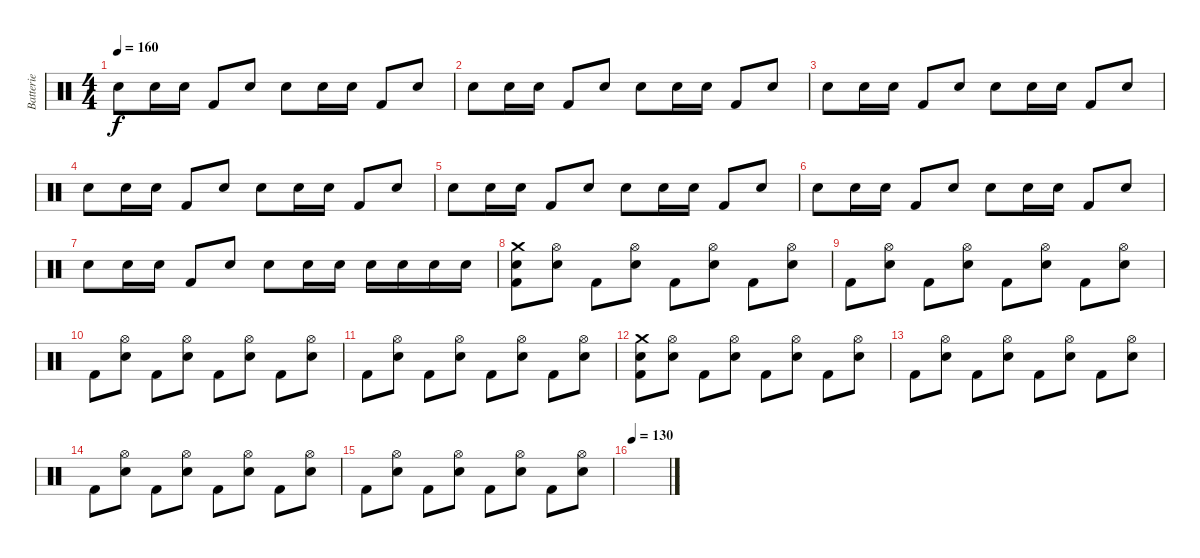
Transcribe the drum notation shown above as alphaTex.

\track ("Batterie" "Batterie") {instrument percussion}
\staff {score}
\articulation defaults
\ts (4 4)
\tempo 160
\clef neutral
\ks c "Electric Snare (hit)".8{dy f} "Electric Snare (hit)".16 "Electric Snare (hit)".16 "Kick (hit) 2".8 "Electric Snare (hit)".8 "Electric Snare (hit)".8 "Electric Snare (hit)".16 "Electric Snare (hit)".16 "Kick (hit) 2".8 "Electric Snare (hit)".8
|
"Electric Snare (hit)".8 "Electric Snare (hit)".16 "Electric Snare (hit)".16 "Kick (hit) 2".8 "Electric Snare (hit)".8 "Electric Snare (hit)".8 "Electric Snare (hit)".16 "Electric Snare (hit)".16 "Kick (hit) 2".8 "Electric Snare (hit)".8 |
"Electric Snare (hit)".8 "Electric Snare (hit)".16 "Electric Snare (hit)".16 "Kick (hit) 2".8 "Electric Snare (hit)".8 "Electric Snare (hit)".8 "Electric Snare (hit)".16 "Electric Snare (hit)".16 "Kick (hit) 2".8 "Electric Snare (hit)".8 |
"Electric Snare (hit)".8 "Electric Snare (hit)".16 "Electric Snare (hit)".16 "Kick (hit) 2".8 "Electric Snare (hit)".8 "Electric Snare (hit)".8 "Electric Snare (hit)".16 "Electric Snare (hit)".16 "Kick (hit) 2".8 "Electric Snare (hit)".8 |
"Electric Snare (hit)".8 "Electric Snare (hit)".16 "Electric Snare (hit)".16 "Kick (hit) 2".8 "Electric Snare (hit)".8 "Electric Snare (hit)".8 "Electric Snare (hit)".16 "Electric Snare (hit)".16 "Kick (hit) 2".8 "Electric Snare (hit)".8 |
"Electric Snare (hit)".8 "Electric Snare (hit)".16 "Electric Snare (hit)".16 "Kick (hit) 2".8 "Electric Snare (hit)".8 "Electric Snare (hit)".8 "Electric Snare (hit)".16 "Electric Snare (hit)".16 "Kick (hit) 2".8 "Electric Snare (hit)".8 |
"Electric Snare (hit)".8 "Electric Snare (hit)".16 "Electric Snare (hit)".16 "Kick (hit) 2".8 "Electric Snare (hit)".8 "Electric Snare (hit)".8 "Electric Snare (hit)".16 "Electric Snare (hit)".16 "Electric Snare (hit)".16 "Electric Snare (hit)".16 "Electric Snare (hit)".16 "Electric Snare (hit)".16 |
("Kick (hit) 2" "Electric Snare (hit)" "Crash medium (hit)").8 ("Electric Snare (hit)" "Hi-Hat (open)").8 "Kick (hit) 2".8 ("Electric Snare (hit)" "Hi-Hat (open)").8 "Kick (hit) 2".8 ("Electric Snare (hit)" "Hi-Hat (open)").8 "Kick (hit) 2".8 ("Electric Snare (hit)" "Hi-Hat (open)").8 |
"Kick (hit) 2".8 ("Electric Snare (hit)" "Hi-Hat (open)").8 "Kick (hit) 2".8 ("Electric Snare (hit)" "Hi-Hat (open)").8 "Kick (hit) 2".8 ("Electric Snare (hit)" "Hi-Hat (open)").8 "Kick (hit) 2".8 ("Electric Snare (hit)" "Hi-Hat (open)").8 |
"Kick (hit) 2".8 ("Electric Snare (hit)" "Hi-Hat (open)").8 "Kick (hit) 2".8 ("Electric Snare (hit)" "Hi-Hat (open)").8 "Kick (hit) 2".8 ("Electric Snare (hit)" "Hi-Hat (open)").8 "Kick (hit) 2".8 ("Electric Snare (hit)" "Hi-Hat (open)").8 |
"Kick (hit) 2".8 ("Electric Snare (hit)" "Hi-Hat (open)").8 "Kick (hit) 2".8 ("Electric Snare (hit)" "Hi-Hat (open)").8 "Kick (hit) 2".8 ("Electric Snare (hit)" "Hi-Hat (open)").8 "Kick (hit) 2".8 ("Electric Snare (hit)" "Hi-Hat (open)").8 |
("Kick (hit) 2" "Electric Snare (hit)" "Crash medium (hit)").8 ("Electric Snare (hit)" "Hi-Hat (open)").8 "Kick (hit) 2".8 ("Electric Snare (hit)" "Hi-Hat (open)").8 "Kick (hit) 2".8 ("Electric Snare (hit)" "Hi-Hat (open)").8 "Kick (hit) 2".8 ("Electric Snare (hit)" "Hi-Hat (open)").8 |
"Kick (hit) 2".8 ("Electric Snare (hit)" "Hi-Hat (open)").8 "Kick (hit) 2".8 ("Electric Snare (hit)" "Hi-Hat (open)").8 "Kick (hit) 2".8 ("Electric Snare (hit)" "Hi-Hat (open)").8 "Kick (hit) 2".8 ("Electric Snare (hit)" "Hi-Hat (open)").8 |
"Kick (hit) 2".8 ("Electric Snare (hit)" "Hi-Hat (open)").8 "Kick (hit) 2".8 ("Electric Snare (hit)" "Hi-Hat (open)").8 "Kick (hit) 2".8 ("Electric Snare (hit)" "Hi-Hat (open)").8 "Kick (hit) 2".8 ("Electric Snare (hit)" "Hi-Hat (open)").8 |
"Kick (hit) 2".8 ("Electric Snare (hit)" "Hi-Hat (open)").8 "Kick (hit) 2".8 ("Electric Snare (hit)" "Hi-Hat (open)").8 "Kick (hit) 2".8 ("Electric Snare (hit)" "Hi-Hat (open)").8 "Kick (hit) 2".8 ("Electric Snare (hit)" "Hi-Hat (open)").8 |
\tempo 130
